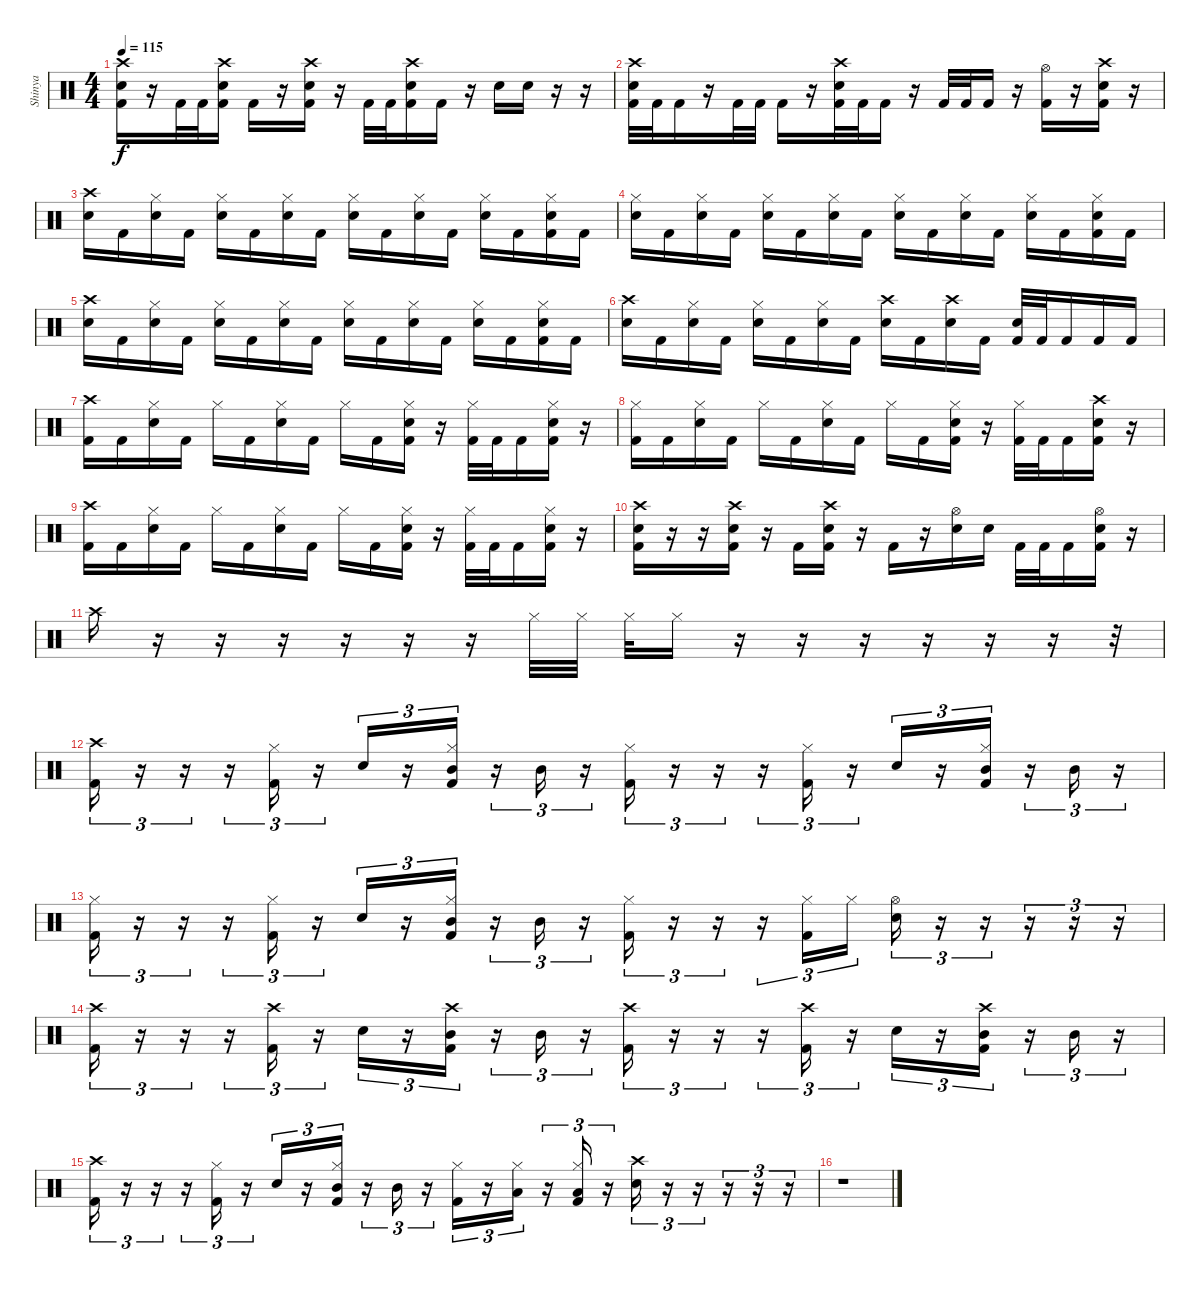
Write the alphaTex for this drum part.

\track ("Shinya" "Shinya") {instrument percussion}
\staff {score}
\articulation defaults
\ts (4 4)
\tempo 115
\clef neutral
\ks c
("Crash high (hit)" "Electric Snare (hit)" "Kick (hit) 2").16{dy f} r.16 "Kick (hit) 2".32 "Kick (hit) 2".32 ("Crash high (hit)" "Electric Snare (hit)" "Kick (hit) 2").16 "Kick (hit) 2".16 r.16 ("Crash high (hit)" "Electric Snare (hit)" "Kick (hit) 2").16 r.16 "Kick (hit) 2".32 "Kick (hit) 2".32 ("Crash high (hit)" "Electric Snare (hit)" "Kick (hit) 2").16 "Kick (hit) 2".16 r.16 "Electric Snare (hit)".16 "Electric Snare (hit)".16 r.16 r.16 |
("Crash high (hit)" "Electric Snare (hit)" "Kick (hit) 2").32 "Kick (hit) 2".32 "Kick (hit) 2".16 r.16 "Kick (hit) 2".32 "Kick (hit) 2".32 "Kick (hit) 2".16 r.16 ("Crash high (hit)" "Electric Snare (hit)" "Kick (hit) 2").32 "Kick (hit) 2".32 "Kick (hit) 2".16 r.16 "Kick (hit) 2".32 "Kick (hit) 2".32 "Kick (hit) 2".16 r.16 ("Hi-Hat (open)" "Kick (hit) 2").16 r.16 ("Crash high (hit)" "Electric Snare (hit)" "Kick (hit) 2").16 r.16 |
("Crash high (hit)" "Electric Snare (hit)").16 "Kick (hit) 2".16 ("Hi-Hat (closed)" "Electric Snare (hit)").16 "Kick (hit) 2".16 ("Hi-Hat (closed)" "Electric Snare (hit)").16 "Kick (hit) 2".16 ("Hi-Hat (closed)" "Electric Snare (hit)").16 "Kick (hit) 2".16 ("Hi-Hat (closed)" "Electric Snare (hit)").16 "Kick (hit) 2".16 ("Hi-Hat (closed)" "Electric Snare (hit)").16 "Kick (hit) 2".16 ("Hi-Hat (closed)" "Electric Snare (hit)").16 "Kick (hit) 2".16 ("Hi-Hat (closed)" "Electric Snare (hit)" "Kick (hit) 2").16 "Kick (hit) 2".16 |
("Hi-Hat (closed)" "Electric Snare (hit)").16 "Kick (hit) 2".16 ("Hi-Hat (closed)" "Electric Snare (hit)").16 "Kick (hit) 2".16 ("Hi-Hat (closed)" "Electric Snare (hit)").16 "Kick (hit) 2".16 ("Hi-Hat (closed)" "Electric Snare (hit)").16 "Kick (hit) 2".16 ("Hi-Hat (closed)" "Electric Snare (hit)").16 "Kick (hit) 2".16 ("Hi-Hat (closed)" "Electric Snare (hit)").16 "Kick (hit) 2".16 ("Hi-Hat (closed)" "Electric Snare (hit)").16 "Kick (hit) 2".16 ("Hi-Hat (closed)" "Electric Snare (hit)" "Kick (hit) 2").16 "Kick (hit) 2".16 |
("Crash high (hit)" "Electric Snare (hit)").16 "Kick (hit) 2".16 ("Hi-Hat (closed)" "Electric Snare (hit)").16 "Kick (hit) 2".16 ("Hi-Hat (closed)" "Electric Snare (hit)").16 "Kick (hit) 2".16 ("Hi-Hat (closed)" "Electric Snare (hit)").16 "Kick (hit) 2".16 ("Hi-Hat (closed)" "Electric Snare (hit)").16 "Kick (hit) 2".16 ("Hi-Hat (closed)" "Electric Snare (hit)").16 "Kick (hit) 2".16 ("Hi-Hat (closed)" "Electric Snare (hit)").16 "Kick (hit) 2".16 ("Hi-Hat (closed)" "Electric Snare (hit)" "Kick (hit) 2").16 "Kick (hit) 2".16 |
("Crash high (hit)" "Electric Snare (hit)").16 "Kick (hit) 2".16 ("Hi-Hat (closed)" "Electric Snare (hit)").16 "Kick (hit) 2".16 ("Hi-Hat (closed)" "Electric Snare (hit)").16 "Kick (hit) 2".16 ("Hi-Hat (closed)" "Electric Snare (hit)").16 "Kick (hit) 2".16 ("Crash high (hit)" "Electric Snare (hit)").16 "Kick (hit) 2".16 ("Crash high (hit)" "Electric Snare (hit)").16 "Kick (hit) 2".16 ("Electric Snare (hit)" "Kick (hit) 2").32 "Kick (hit) 2".32 "Kick (hit) 2".16 "Kick (hit) 2".16 "Kick (hit) 2".16 |
("Crash high (hit)" "Kick (hit) 2").16 "Kick (hit) 2".16 ("Hi-Hat (closed)" "Electric Snare (hit)").16 "Kick (hit) 2".16 "Hi-Hat (closed)".16 "Kick (hit) 2".16 ("Hi-Hat (closed)" "Electric Snare (hit)").16 "Kick (hit) 2".16 "Hi-Hat (closed)".16 "Kick (hit) 2".16 ("Hi-Hat (closed)" "Electric Snare (hit)" "Kick (hit) 2").16 r.16 ("Hi-Hat (closed)" "Kick (hit) 2").32 "Kick (hit) 2".32 "Kick (hit) 2".16 ("Hi-Hat (closed)" "Electric Snare (hit)" "Kick (hit) 2").16 r.16 |
("Hi-Hat (closed)" "Kick (hit) 2").16 "Kick (hit) 2".16 ("Hi-Hat (closed)" "Electric Snare (hit)").16 "Kick (hit) 2".16 "Hi-Hat (closed)".16 "Kick (hit) 2".16 ("Hi-Hat (closed)" "Electric Snare (hit)").16 "Kick (hit) 2".16 "Hi-Hat (closed)".16 "Kick (hit) 2".16 ("Hi-Hat (closed)" "Electric Snare (hit)" "Kick (hit) 2").16 r.16 ("Hi-Hat (closed)" "Kick (hit) 2").32 "Kick (hit) 2".32 "Kick (hit) 2".16 ("Crash high (hit)" "Electric Snare (hit)" "Kick (hit) 2").16 r.16 |
("Crash high (hit)" "Kick (hit) 2").16 "Kick (hit) 2".16 ("Hi-Hat (closed)" "Electric Snare (hit)").16 "Kick (hit) 2".16 "Hi-Hat (closed)".16 "Kick (hit) 2".16 ("Hi-Hat (closed)" "Electric Snare (hit)").16 "Kick (hit) 2".16 "Hi-Hat (closed)".16 "Kick (hit) 2".16 ("Hi-Hat (closed)" "Electric Snare (hit)" "Kick (hit) 2").16 r.16 ("Hi-Hat (closed)" "Kick (hit) 2").32 "Kick (hit) 2".32 "Kick (hit) 2".16 ("Hi-Hat (closed)" "Electric Snare (hit)" "Kick (hit) 2").16 r.16 |
("Crash high (hit)" "Electric Snare (hit)" "Kick (hit) 2").16 r.16 r.16 ("Crash high (hit)" "Electric Snare (hit)" "Kick (hit) 2").16 r.16 "Kick (hit) 2".16 ("Crash high (hit)" "Electric Snare (hit)" "Kick (hit) 2").16 r.16 "Kick (hit) 2".16 r.16 ("Hi-Hat (open)" "Electric Snare (hit)").16 "Electric Snare (hit)".16 "Kick (hit) 2".32 "Kick (hit) 2".32 "Kick (hit) 2".16 ("Hi-Hat (open)" "Electric Snare (hit)" "Kick (hit) 2").16 r.16 |
"Crash high (hit)".16 r.16 r.16 r.16 r.16 r.16 r.16 "Hi-Hat (closed)".32 "Hi-Hat (closed)".32 "Hi-Hat (closed)".32 "Hi-Hat (closed)".16 r.16 r.16 r.16 r.16 r.16 r.16 r.32 |
("Crash high (hit)" "Kick (hit) 2").16{tu (3 2)} r.16{tu (3 2)} r.16{tu (3 2)} r.16{tu (3 2)} ("Hi-Hat (closed)" "Kick (hit) 2").16{tu (3 2)} r.16{tu (3 2)} "Electric Snare (hit)".16{tu (3 2)} r.16{tu (3 2)} ("Hi-Hat (closed)" "Mid Tom (hit)" "Kick (hit) 2").16{tu (3 2)} r.16{tu (3 2)} "Mid Tom (hit)".16{tu (3 2)} r.16{tu (3 2)} ("Hi-Hat (closed)" "Kick (hit) 2").16{tu (3 2)} r.16{tu (3 2)} r.16{tu (3 2)} r.16{tu (3 2)} ("Hi-Hat (closed)" "Kick (hit) 2").16{tu (3 2)} r.16{tu (3 2)} "Electric Snare (hit)".16{tu (3 2)} r.16{tu (3 2)} ("Hi-Hat (closed)" "Mid Tom (hit)" "Kick (hit) 2").16{tu (3 2)} r.16{tu (3 2)} "Mid Tom (hit)".16{tu (3 2)} r.16{tu (3 2)} |
("Hi-Hat (closed)" "Kick (hit) 2").16{tu (3 2)} r.16{tu (3 2)} r.16{tu (3 2)} r.16{tu (3 2)} ("Hi-Hat (closed)" "Kick (hit) 2").16{tu (3 2)} r.16{tu (3 2)} "Electric Snare (hit)".16{tu (3 2)} r.16{tu (3 2)} ("Hi-Hat (closed)" "Mid Tom (hit)" "Kick (hit) 2").16{tu (3 2)} r.16{tu (3 2)} "Mid Tom (hit)".16{tu (3 2)} r.16{tu (3 2)} ("Hi-Hat (closed)" "Kick (hit) 2").16{tu (3 2)} r.16{tu (3 2)} r.16{tu (3 2)} r.16{tu (3 2)} ("Hi-Hat (closed)" "Kick (hit) 2").16{tu (3 2)} "Hi-Hat (closed)".16{tu (3 2)} ("Hi-Hat (open)" "Electric Snare (hit)").16{tu (3 2)} r.16{tu (3 2)} r.16{tu (3 2)} r.16{tu (3 2)} r.16{tu (3 2)} r.16{tu (3 2)} |
("Crash high (hit)" "Kick (hit) 2").16{tu (3 2)} r.16{tu (3 2)} r.16{tu (3 2)} r.16{tu (3 2)} ("Crash high (hit)" "Kick (hit) 2").16{tu (3 2)} r.16{tu (3 2)} "Electric Snare (hit)".16{tu (3 2)} r.16{tu (3 2)} ("Crash high (hit)" "Mid Tom (hit)" "Kick (hit) 2").16{tu (3 2)} r.16{tu (3 2)} "Mid Tom (hit)".16{tu (3 2)} r.16{tu (3 2)} ("Crash high (hit)" "Kick (hit) 2").16{tu (3 2)} r.16{tu (3 2)} r.16{tu (3 2)} r.16{tu (3 2)} ("Crash high (hit)" "Kick (hit) 2").16{tu (3 2)} r.16{tu (3 2)} "Electric Snare (hit)".16{tu (3 2)} r.16{tu (3 2)} ("Crash high (hit)" "Mid Tom (hit)" "Kick (hit) 2").16{tu (3 2)} r.16{tu (3 2)} "Mid Tom (hit)".16{tu (3 2)} r.16{tu (3 2)} |
("Crash high (hit)" "Kick (hit) 2").16{tu (3 2)} r.16{tu (3 2)} r.16{tu (3 2)} r.16{tu (3 2)} ("Hi-Hat (closed)" "Kick (hit) 2").16{tu (3 2)} r.16{tu (3 2)} "Electric Snare (hit)".16{tu (3 2)} r.16{tu (3 2)} ("Hi-Hat (closed)" "Mid Tom (hit)" "Kick (hit) 2").16{tu (3 2)} r.16{tu (3 2)} "Mid Tom (hit)".16{tu (3 2)} r.16{tu (3 2)} ("Hi-Hat (closed)" "Kick (hit) 2").16{tu (3 2)} r.16{tu (3 2)} ("Hi-Hat (closed)" "Low Tom (hit)").16{tu (3 2)} r.16{tu (3 2)} ("Hi-Hat (closed)" "Low Tom (hit)" "Kick (hit) 2").16{tu (3 2)} r.16{tu (3 2)} ("Crash high (hit)" "Electric Snare (hit)").16{tu (3 2)} r.16{tu (3 2)} r.16{tu (3 2)} r.16{tu (3 2)} r.16{tu (3 2)} r.16{tu (3 2)} |
r.1
